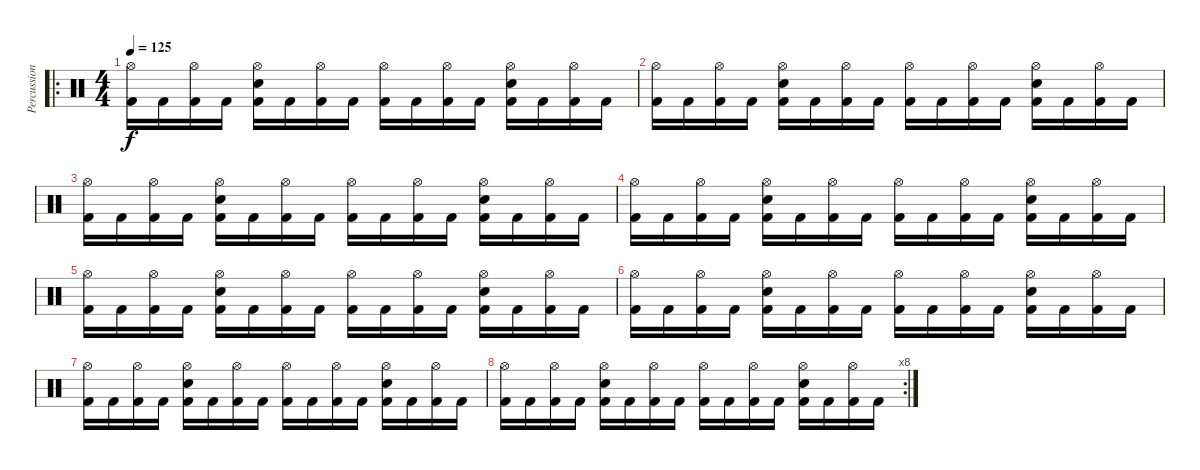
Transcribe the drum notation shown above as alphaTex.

\track ("Percussion" "Percussion") {instrument percussion}
\staff {score}
\articulation defaults
\ro
\ts (4 4)
\tempo 125
\clef neutral
\ks c
("Hi-Hat (open)" "Kick (hit) 2").16{dy f} "Kick (hit) 2".16 ("Hi-Hat (open)" "Kick (hit) 2").16 "Kick (hit) 2".16 ("Hi-Hat (open)" "Electric Snare (hit)" "Kick (hit) 2").16 "Kick (hit) 2".16 ("Hi-Hat (open)" "Kick (hit) 2").16 "Kick (hit) 2".16 ("Hi-Hat (open)" "Kick (hit) 2").16 "Kick (hit) 2".16 ("Hi-Hat (open)" "Kick (hit) 2").16 "Kick (hit) 2".16 ("Hi-Hat (open)" "Electric Snare (hit)" "Kick (hit) 2").16 "Kick (hit) 2".16 ("Hi-Hat (open)" "Kick (hit) 2").16 "Kick (hit) 2".16 |
("Hi-Hat (open)" "Kick (hit) 2").16 "Kick (hit) 2".16 ("Hi-Hat (open)" "Kick (hit) 2").16 "Kick (hit) 2".16 ("Hi-Hat (open)" "Electric Snare (hit)" "Kick (hit) 2").16 "Kick (hit) 2".16 ("Hi-Hat (open)" "Kick (hit) 2").16 "Kick (hit) 2".16 ("Hi-Hat (open)" "Kick (hit) 2").16 "Kick (hit) 2".16 ("Hi-Hat (open)" "Kick (hit) 2").16 "Kick (hit) 2".16 ("Hi-Hat (open)" "Electric Snare (hit)" "Kick (hit) 2").16 "Kick (hit) 2".16 ("Hi-Hat (open)" "Kick (hit) 2").16 "Kick (hit) 2".16 |
("Hi-Hat (open)" "Kick (hit) 2").16 "Kick (hit) 2".16 ("Hi-Hat (open)" "Kick (hit) 2").16 "Kick (hit) 2".16 ("Hi-Hat (open)" "Electric Snare (hit)" "Kick (hit) 2").16 "Kick (hit) 2".16 ("Hi-Hat (open)" "Kick (hit) 2").16 "Kick (hit) 2".16 ("Hi-Hat (open)" "Kick (hit) 2").16 "Kick (hit) 2".16 ("Hi-Hat (open)" "Kick (hit) 2").16 "Kick (hit) 2".16 ("Hi-Hat (open)" "Electric Snare (hit)" "Kick (hit) 2").16 "Kick (hit) 2".16 ("Hi-Hat (open)" "Kick (hit) 2").16 "Kick (hit) 2".16 |
("Hi-Hat (open)" "Kick (hit) 2").16 "Kick (hit) 2".16 ("Hi-Hat (open)" "Kick (hit) 2").16 "Kick (hit) 2".16 ("Hi-Hat (open)" "Electric Snare (hit)" "Kick (hit) 2").16 "Kick (hit) 2".16 ("Hi-Hat (open)" "Kick (hit) 2").16 "Kick (hit) 2".16 ("Hi-Hat (open)" "Kick (hit) 2").16 "Kick (hit) 2".16 ("Hi-Hat (open)" "Kick (hit) 2").16 "Kick (hit) 2".16 ("Hi-Hat (open)" "Electric Snare (hit)" "Kick (hit) 2").16 "Kick (hit) 2".16 ("Hi-Hat (open)" "Kick (hit) 2").16 "Kick (hit) 2".16 |
("Hi-Hat (open)" "Kick (hit) 2").16 "Kick (hit) 2".16 ("Hi-Hat (open)" "Kick (hit) 2").16 "Kick (hit) 2".16 ("Hi-Hat (open)" "Electric Snare (hit)" "Kick (hit) 2").16 "Kick (hit) 2".16 ("Hi-Hat (open)" "Kick (hit) 2").16 "Kick (hit) 2".16 ("Hi-Hat (open)" "Kick (hit) 2").16 "Kick (hit) 2".16 ("Hi-Hat (open)" "Kick (hit) 2").16 "Kick (hit) 2".16 ("Hi-Hat (open)" "Electric Snare (hit)" "Kick (hit) 2").16 "Kick (hit) 2".16 ("Hi-Hat (open)" "Kick (hit) 2").16 "Kick (hit) 2".16 |
("Hi-Hat (open)" "Kick (hit) 2").16 "Kick (hit) 2".16 ("Hi-Hat (open)" "Kick (hit) 2").16 "Kick (hit) 2".16 ("Hi-Hat (open)" "Electric Snare (hit)" "Kick (hit) 2").16 "Kick (hit) 2".16 ("Hi-Hat (open)" "Kick (hit) 2").16 "Kick (hit) 2".16 ("Hi-Hat (open)" "Kick (hit) 2").16 "Kick (hit) 2".16 ("Hi-Hat (open)" "Kick (hit) 2").16 "Kick (hit) 2".16 ("Hi-Hat (open)" "Electric Snare (hit)" "Kick (hit) 2").16 "Kick (hit) 2".16 ("Hi-Hat (open)" "Kick (hit) 2").16 "Kick (hit) 2".16 |
("Hi-Hat (open)" "Kick (hit) 2").16 "Kick (hit) 2".16 ("Hi-Hat (open)" "Kick (hit) 2").16 "Kick (hit) 2".16 ("Hi-Hat (open)" "Electric Snare (hit)" "Kick (hit) 2").16 "Kick (hit) 2".16 ("Hi-Hat (open)" "Kick (hit) 2").16 "Kick (hit) 2".16 ("Hi-Hat (open)" "Kick (hit) 2").16 "Kick (hit) 2".16 ("Hi-Hat (open)" "Kick (hit) 2").16 "Kick (hit) 2".16 ("Hi-Hat (open)" "Electric Snare (hit)" "Kick (hit) 2").16 "Kick (hit) 2".16 ("Hi-Hat (open)" "Kick (hit) 2").16 "Kick (hit) 2".16 |
\rc 8
("Hi-Hat (open)" "Kick (hit) 2").16 "Kick (hit) 2".16 ("Hi-Hat (open)" "Kick (hit) 2").16 "Kick (hit) 2".16 ("Hi-Hat (open)" "Electric Snare (hit)" "Kick (hit) 2").16 "Kick (hit) 2".16 ("Hi-Hat (open)" "Kick (hit) 2").16 "Kick (hit) 2".16 ("Hi-Hat (open)" "Kick (hit) 2").16 "Kick (hit) 2".16 ("Hi-Hat (open)" "Kick (hit) 2").16 "Kick (hit) 2".16 ("Hi-Hat (open)" "Electric Snare (hit)" "Kick (hit) 2").16 "Kick (hit) 2".16 ("Hi-Hat (open)" "Kick (hit) 2").16 "Kick (hit) 2".16
